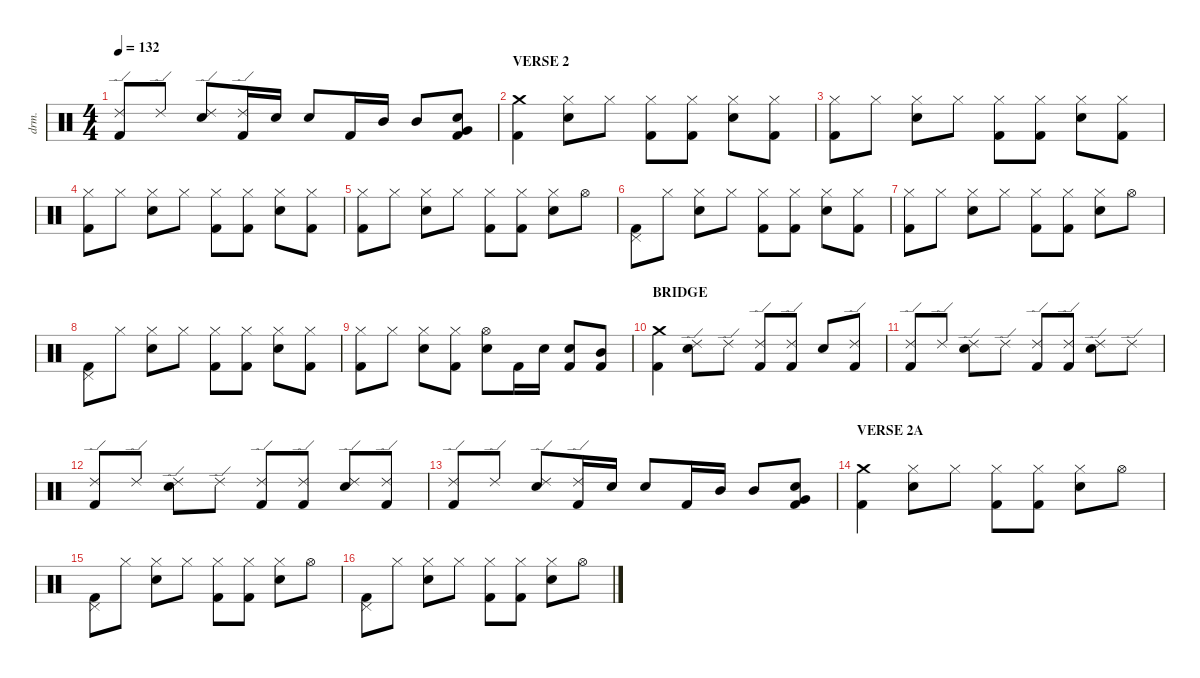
\defaultSystemsLayout 4
\hideDynamics
\bracketExtendMode nobrackets
\otherSystemsTrackNameOrientation horizontal
\track ("Drums" "drm.") {instrument percussion}
\staff {score}
\articulation defaults
\ts (4 4)
\tempo 132
\clef neutral
\ks c
("Ride (edge) 2" "Kick (hit) 2").8{dy f beam Up} "Ride (edge) 2".8{dy mf beam Up} ("Ride (edge) 2" "Snare (hit) 2").8{dy f beam Up} ("Ride (edge) 2" "Kick (hit) 2").16{beam Up} "Snare (hit) 2".16{dy ff beam Up} "Snare (hit) 2".8{dy fff beam Up} "Kick (hit) 2".16{dy ff beam Up} "Mid Tom (hit)".16{dy fff beam Up} "Mid Tom (hit)".8{beam Up} ("Snare (hit) 2" "Very Low Tom (hit)" "Kick (hit) 2").8{dy f beam Up} |
\section ("" "VERSE 2")
("Crash medium (hit)" "Kick (hit) 2").4{beam Down} ("Hi-Hat (closed)" "Snare (hit) 2").8{dy ff beam Down} "Hi-Hat (closed)".8{dy mf beam Down} ("Hi-Hat (closed)" "Kick (hit) 2").8{dy f beam Down} ("Hi-Hat (closed)" "Kick (hit) 2").8{dy mf beam Down} ("Hi-Hat (closed)" "Snare (hit) 2").8{beam Down} ("Hi-Hat (closed)" "Kick (hit) 2").8{dy f beam Down} |
("Hi-Hat (closed)" "Kick (hit) 2").8{dy ff beam Down} "Hi-Hat (closed)".8{dy mf beam Down} ("Hi-Hat (closed)" "Snare (hit) 2").8{dy f beam Down} "Hi-Hat (closed)".8{dy mf beam Down} ("Hi-Hat (closed)" "Kick (hit) 2").8{beam Down} ("Hi-Hat (closed)" "Kick (hit) 2").8{beam Down} ("Hi-Hat (closed)" "Snare (hit) 2").8{dy f beam Down} ("Hi-Hat (closed)" "Kick (hit) 2").8{dy mf beam Down} |
("Hi-Hat (closed)" "Kick (hit) 2").8{dy f beam Down} "Hi-Hat (closed)".8{beam Down} ("Hi-Hat (closed)" "Snare (hit) 2").8{beam Down} "Hi-Hat (closed)".8{dy mf beam Down} ("Hi-Hat (closed)" "Kick (hit) 2").8{dy f beam Down} ("Hi-Hat (closed)" "Kick (hit) 2").8{dy mf beam Down} ("Hi-Hat (closed)" "Snare (hit) 2").8{dy f beam Down} ("Hi-Hat (closed)" "Kick (hit) 2").8{dy mf beam Down} |
("Hi-Hat (closed)" "Kick (hit) 2").8{dy ff beam Down} "Hi-Hat (closed)".8{dy mf beam Down} ("Hi-Hat (closed)" "Snare (hit) 2").8{dy f beam Down} "Hi-Hat (closed)".8{dy mf beam Down} ("Hi-Hat (closed)" "Kick (hit) 2").8{beam Down} ("Hi-Hat (closed)" "Kick (hit) 2").8{beam Down} ("Hi-Hat (closed)" "Snare (hit) 2").8{dy f beam Down} "Hi-Hat (open)".8{dy mf beam Down} |
("Pedal Hi-Hat (hit)" "Kick (hit) 2").8{dy f beam Down} "Hi-Hat (closed)".8{dy mf beam Down} ("Hi-Hat (closed)" "Snare (hit) 2").8{dy ff beam Down} "Hi-Hat (closed)".8{dy mf beam Down} ("Hi-Hat (closed)" "Kick (hit) 2").8{dy f beam Down} ("Hi-Hat (closed)" "Kick (hit) 2").8{dy mf beam Down} ("Hi-Hat (closed)" "Snare (hit) 2").8{beam Down} ("Hi-Hat (closed)" "Kick (hit) 2").8{dy f beam Down} |
("Hi-Hat (closed)" "Kick (hit) 2").8{dy ff beam Down} "Hi-Hat (closed)".8{dy mf beam Down} ("Hi-Hat (closed)" "Snare (hit) 2").8{dy f beam Down} "Hi-Hat (closed)".8{dy mf beam Down} ("Hi-Hat (closed)" "Kick (hit) 2").8{beam Down} ("Hi-Hat (closed)" "Kick (hit) 2").8{beam Down} ("Hi-Hat (closed)" "Snare (hit) 2").8{dy f beam Down} "Hi-Hat (open)".8{dy mf beam Down} |
("Pedal Hi-Hat (hit)" "Kick (hit) 2").8{dy f beam Down} "Hi-Hat (closed)".8{beam Down} ("Hi-Hat (closed)" "Snare (hit) 2").8{beam Down} "Hi-Hat (closed)".8{dy mf beam Down} ("Hi-Hat (closed)" "Kick (hit) 2").8{dy f beam Down} ("Hi-Hat (closed)" "Kick (hit) 2").8{dy mf beam Down} ("Hi-Hat (closed)" "Snare (hit) 2").8{dy f beam Down} ("Hi-Hat (closed)" "Kick (hit) 2").8{dy mf beam Down} |
("Hi-Hat (closed)" "Kick (hit) 2").8{dy ff beam Down} "Hi-Hat (closed)".8{dy mf beam Down} ("Hi-Hat (closed)" "Snare (hit) 2").8{dy f beam Down} ("Hi-Hat (closed)" "Kick (hit) 2").8{dy mf beam Down} ("Hi-Hat (open)" "Snare (hit) 2").8{dy f beam Down} "Kick (hit) 2".16{beam Down} "Snare (hit) 2".16{dy mf beam Down} ("Snare (hit) 2" "Kick (hit) 2").8{dy ff beam Up} ("Mid Tom (hit)" "Kick (hit) 2").8{dy fff beam Up} |
\section ("" "BRIDGE")
("Crash medium (hit)" "Kick (hit) 2").4{beam Down} ("Ride (edge) 2" "Snare (hit) 2").8{dy ff beam Down} "Ride (edge) 2".8{dy mf beam Down} ("Ride (edge) 2" "Kick (hit) 2").8{dy ff beam Up} ("Ride (edge) 2" "Kick (hit) 2").8{dy f beam Up} "Snare (hit) 2".8{beam Up} ("Ride (edge) 2" "Kick (hit) 2").8{dy mf beam Up} |
("Ride (edge) 2" "Kick (hit) 2").8{dy ff beam Up} "Ride (edge) 2".8{dy mf beam Up} ("Ride (edge) 2" "Snare (hit) 2").8{dy f beam Down} "Ride (edge) 2".8{dy mf beam Down} ("Ride (edge) 2" "Kick (hit) 2").8{dy f beam Up} ("Ride (edge) 2" "Kick (hit) 2").8{dy ff beam Up} ("Ride (edge) 2" "Snare (hit) 2").8{dy mf beam Down} "Ride (edge) 2".8{dy f beam Down} |
("Ride (edge) 2" "Kick (hit) 2").8{beam Up} "Ride (edge) 2".8{beam Up} ("Ride (edge) 2" "Snare (hit) 2").8{dy ff beam Down} "Ride (edge) 2".8{dy mf beam Down} ("Ride (edge) 2" "Kick (hit) 2").8{beam Up} ("Ride (edge) 2" "Kick (hit) 2").8{dy f beam Up} ("Ride (edge) 2" "Snare (hit) 2").8{dy ff beam Up} ("Ride (edge) 2" "Kick (hit) 2").8{dy mf beam Up} |
("Ride (edge) 2" "Kick (hit) 2").8{dy ff beam Up} "Ride (edge) 2".8{dy mf beam Up} ("Ride (edge) 2" "Snare (hit) 2").8{dy f beam Up} ("Ride (edge) 2" "Kick (hit) 2").16{dy mf beam Up} "Snare (hit) 2".16{dy ff beam Up} "Snare (hit) 2".8{dy fff beam Up} "Kick (hit) 2".16{dy f beam Up} "Mid Tom (hit)".16{dy fff beam Up} "Mid Tom (hit)".8{beam Up} ("Snare (hit) 2" "Very Low Tom (hit)" "Kick (hit) 2").8{dy f beam Up} |
\section ("" "VERSE 2A")
("Crash medium (hit)" "Kick (hit) 2").4{dy ff beam Down} ("Hi-Hat (closed)" "Snare (hit) 2").8{beam Down} "Hi-Hat (closed)".8{dy mf beam Down} ("Hi-Hat (closed)" "Kick (hit) 2").8{dy f beam Down} ("Hi-Hat (closed)" "Kick (hit) 2").8{dy mf beam Down} ("Hi-Hat (closed)" "Snare (hit) 2").8{beam Down} "Hi-Hat (open)".8{dy f beam Down} |
("Pedal Hi-Hat (hit)" "Kick (hit) 2").8{beam Down} "Hi-Hat (closed)".8{dy mf beam Down} ("Hi-Hat (closed)" "Snare (hit) 2").8{dy f beam Down} "Hi-Hat (closed)".8{dy mf beam Down} ("Hi-Hat (closed)" "Kick (hit) 2").8{beam Down} ("Hi-Hat (closed)" "Kick (hit) 2").8{beam Down} ("Hi-Hat (closed)" "Snare (hit) 2").8{dy f beam Down} "Hi-Hat (open)".8{dy mf beam Down} |
("Pedal Hi-Hat (hit)" "Kick (hit) 2").8{dy f beam Down} "Hi-Hat (closed)".8{beam Down} ("Hi-Hat (closed)" "Snare (hit) 2").8{beam Down} "Hi-Hat (closed)".8{dy mf beam Down} ("Hi-Hat (closed)" "Kick (hit) 2").8{dy f beam Down} ("Hi-Hat (closed)" "Kick (hit) 2").8{dy mf beam Down} ("Hi-Hat (closed)" "Snare (hit) 2").8{dy f beam Down} "Hi-Hat (open)".8{dy mf beam Down}
